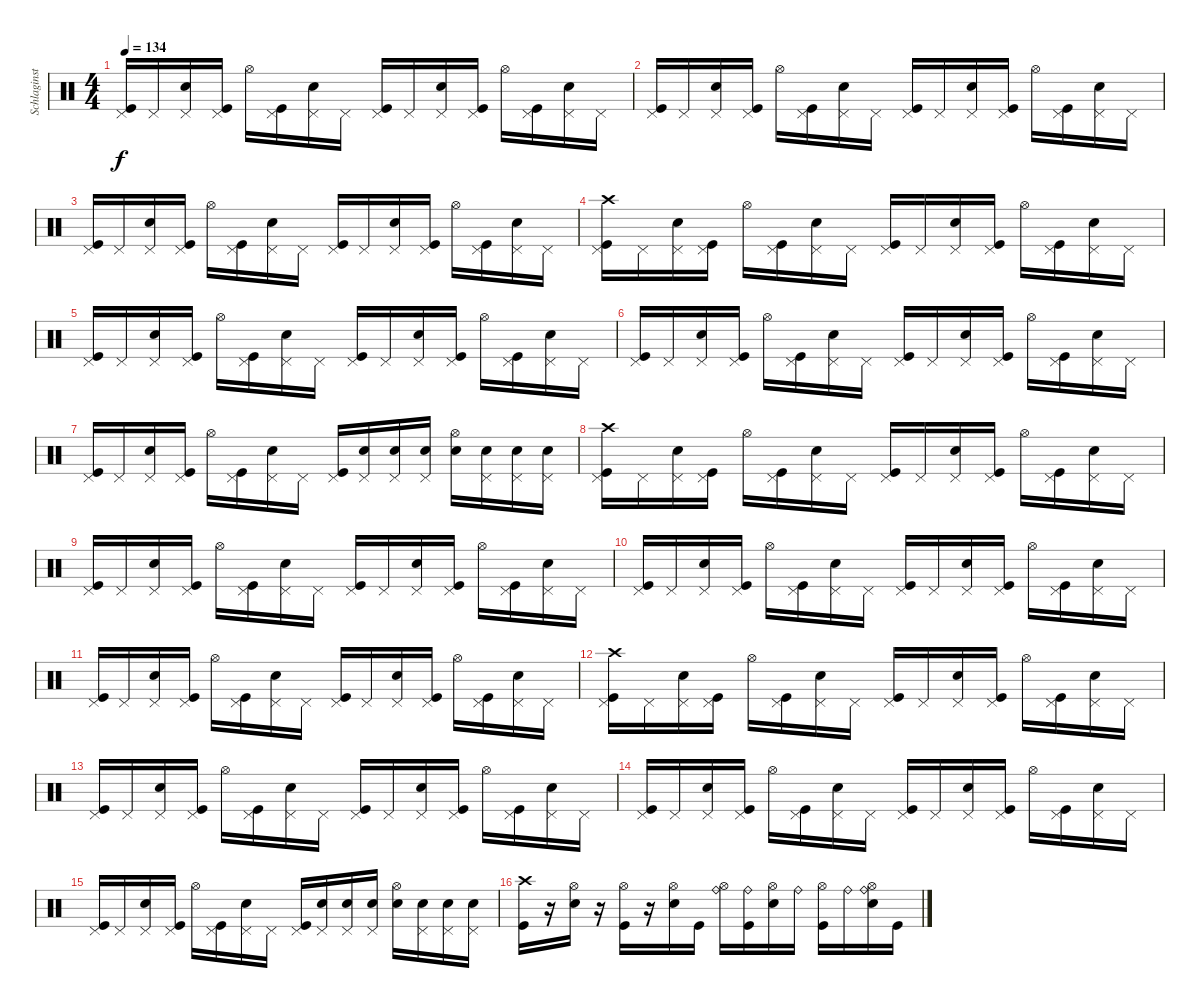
\track ("Schlaginstrumente - Auswahl" "Schlaginst") {instrument percussion}
\staff {score}
\articulation defaults
\ts (4 4)
\tempo 134
\clef neutral
\ks c
("Pedal Hi-Hat (hit)" "Kick (hit)").16{dy f} "Pedal Hi-Hat (hit)".16 ("Pedal Hi-Hat (hit)" "Snare (hit) 2").16 ("Pedal Hi-Hat (hit)" "Kick (hit)").16 "Hi-Hat (open)".16 ("Pedal Hi-Hat (hit)" "Kick (hit)").16 ("Pedal Hi-Hat (hit)" "Snare (hit) 2").16 "Pedal Hi-Hat (hit)".16 ("Pedal Hi-Hat (hit)" "Kick (hit)").16 "Pedal Hi-Hat (hit)".16 ("Pedal Hi-Hat (hit)" "Snare (hit) 2").16 ("Pedal Hi-Hat (hit)" "Kick (hit)").16 "Hi-Hat (open)".16 ("Pedal Hi-Hat (hit)" "Kick (hit)").16 ("Pedal Hi-Hat (hit)" "Snare (hit) 2").16 "Pedal Hi-Hat (hit)".16 |
("Pedal Hi-Hat (hit)" "Kick (hit)").16 "Pedal Hi-Hat (hit)".16 ("Pedal Hi-Hat (hit)" "Snare (hit) 2").16 ("Pedal Hi-Hat (hit)" "Kick (hit)").16 "Hi-Hat (open)".16 ("Pedal Hi-Hat (hit)" "Kick (hit)").16 ("Pedal Hi-Hat (hit)" "Snare (hit) 2").16 "Pedal Hi-Hat (hit)".16 ("Pedal Hi-Hat (hit)" "Kick (hit)").16 "Pedal Hi-Hat (hit)".16 ("Pedal Hi-Hat (hit)" "Snare (hit) 2").16 ("Pedal Hi-Hat (hit)" "Kick (hit)").16 "Hi-Hat (open)".16 ("Pedal Hi-Hat (hit)" "Kick (hit)").16 ("Pedal Hi-Hat (hit)" "Snare (hit) 2").16 "Pedal Hi-Hat (hit)".16 |
("Pedal Hi-Hat (hit)" "Kick (hit)").16 "Pedal Hi-Hat (hit)".16 ("Pedal Hi-Hat (hit)" "Snare (hit) 2").16 ("Pedal Hi-Hat (hit)" "Kick (hit)").16 "Hi-Hat (open)".16 ("Pedal Hi-Hat (hit)" "Kick (hit)").16 ("Pedal Hi-Hat (hit)" "Snare (hit) 2").16 "Pedal Hi-Hat (hit)".16 ("Pedal Hi-Hat (hit)" "Kick (hit)").16 "Pedal Hi-Hat (hit)".16 ("Pedal Hi-Hat (hit)" "Snare (hit) 2").16 ("Pedal Hi-Hat (hit)" "Kick (hit)").16 "Hi-Hat (open)".16 ("Pedal Hi-Hat (hit)" "Kick (hit)").16 ("Pedal Hi-Hat (hit)" "Snare (hit) 2").16 "Pedal Hi-Hat (hit)".16 |
("Pedal Hi-Hat (hit)" "Crash high (hit)" "Kick (hit)").16 "Pedal Hi-Hat (hit)".16 ("Pedal Hi-Hat (hit)" "Snare (hit) 2").16 ("Pedal Hi-Hat (hit)" "Kick (hit)").16 "Hi-Hat (open)".16 ("Pedal Hi-Hat (hit)" "Kick (hit)").16 ("Pedal Hi-Hat (hit)" "Snare (hit) 2").16 "Pedal Hi-Hat (hit)".16 ("Pedal Hi-Hat (hit)" "Kick (hit)").16 "Pedal Hi-Hat (hit)".16 ("Pedal Hi-Hat (hit)" "Snare (hit) 2").16 ("Pedal Hi-Hat (hit)" "Kick (hit)").16 "Hi-Hat (open)".16 ("Pedal Hi-Hat (hit)" "Kick (hit)").16 ("Pedal Hi-Hat (hit)" "Snare (hit) 2").16 "Pedal Hi-Hat (hit)".16 |
("Pedal Hi-Hat (hit)" "Kick (hit)").16 "Pedal Hi-Hat (hit)".16 ("Pedal Hi-Hat (hit)" "Snare (hit) 2").16 ("Pedal Hi-Hat (hit)" "Kick (hit)").16 "Hi-Hat (open)".16 ("Pedal Hi-Hat (hit)" "Kick (hit)").16 ("Pedal Hi-Hat (hit)" "Snare (hit) 2").16 "Pedal Hi-Hat (hit)".16 ("Pedal Hi-Hat (hit)" "Kick (hit)").16 "Pedal Hi-Hat (hit)".16 ("Pedal Hi-Hat (hit)" "Snare (hit) 2").16 ("Pedal Hi-Hat (hit)" "Kick (hit)").16 "Hi-Hat (open)".16 ("Pedal Hi-Hat (hit)" "Kick (hit)").16 ("Pedal Hi-Hat (hit)" "Snare (hit) 2").16 "Pedal Hi-Hat (hit)".16 |
("Pedal Hi-Hat (hit)" "Kick (hit)").16 "Pedal Hi-Hat (hit)".16 ("Pedal Hi-Hat (hit)" "Snare (hit) 2").16 ("Pedal Hi-Hat (hit)" "Kick (hit)").16 "Hi-Hat (open)".16 ("Pedal Hi-Hat (hit)" "Kick (hit)").16 ("Pedal Hi-Hat (hit)" "Snare (hit) 2").16 "Pedal Hi-Hat (hit)".16 ("Pedal Hi-Hat (hit)" "Kick (hit)").16 "Pedal Hi-Hat (hit)".16 ("Pedal Hi-Hat (hit)" "Snare (hit) 2").16 ("Pedal Hi-Hat (hit)" "Kick (hit)").16 "Hi-Hat (open)".16 ("Pedal Hi-Hat (hit)" "Kick (hit)").16 ("Pedal Hi-Hat (hit)" "Snare (hit) 2").16 "Pedal Hi-Hat (hit)".16 |
("Pedal Hi-Hat (hit)" "Kick (hit)").16 "Pedal Hi-Hat (hit)".16 ("Pedal Hi-Hat (hit)" "Snare (hit) 2").16 ("Pedal Hi-Hat (hit)" "Kick (hit)").16 "Hi-Hat (open)".16 ("Pedal Hi-Hat (hit)" "Kick (hit)").16 ("Pedal Hi-Hat (hit)" "Snare (hit) 2").16 "Pedal Hi-Hat (hit)".16 ("Pedal Hi-Hat (hit)" "Kick (hit)").16 ("Pedal Hi-Hat (hit)" "Snare (hit) 2").16 ("Pedal Hi-Hat (hit)" "Snare (hit) 2").16 ("Pedal Hi-Hat (hit)" "Snare (hit) 2").16 ("Hi-Hat (open)" "Snare (hit) 2").16 ("Pedal Hi-Hat (hit)" "Snare (hit) 2").16 ("Pedal Hi-Hat (hit)" "Snare (hit) 2").16 ("Pedal Hi-Hat (hit)" "Snare (hit) 2").16 |
("Pedal Hi-Hat (hit)" "Crash high (hit)" "Kick (hit)").16 "Pedal Hi-Hat (hit)".16 ("Pedal Hi-Hat (hit)" "Snare (hit) 2").16 ("Pedal Hi-Hat (hit)" "Kick (hit)").16 "Hi-Hat (open)".16 ("Pedal Hi-Hat (hit)" "Kick (hit)").16 ("Pedal Hi-Hat (hit)" "Snare (hit) 2").16 "Pedal Hi-Hat (hit)".16 ("Pedal Hi-Hat (hit)" "Kick (hit)").16 "Pedal Hi-Hat (hit)".16 ("Pedal Hi-Hat (hit)" "Snare (hit) 2").16 ("Pedal Hi-Hat (hit)" "Kick (hit)").16 "Hi-Hat (open)".16 ("Pedal Hi-Hat (hit)" "Kick (hit)").16 ("Pedal Hi-Hat (hit)" "Snare (hit) 2").16 "Pedal Hi-Hat (hit)".16 |
("Pedal Hi-Hat (hit)" "Kick (hit)").16 "Pedal Hi-Hat (hit)".16 ("Pedal Hi-Hat (hit)" "Snare (hit) 2").16 ("Pedal Hi-Hat (hit)" "Kick (hit)").16 "Hi-Hat (open)".16 ("Pedal Hi-Hat (hit)" "Kick (hit)").16 ("Pedal Hi-Hat (hit)" "Snare (hit) 2").16 "Pedal Hi-Hat (hit)".16 ("Pedal Hi-Hat (hit)" "Kick (hit)").16 "Pedal Hi-Hat (hit)".16 ("Pedal Hi-Hat (hit)" "Snare (hit) 2").16 ("Pedal Hi-Hat (hit)" "Kick (hit)").16 "Hi-Hat (open)".16 ("Pedal Hi-Hat (hit)" "Kick (hit)").16 ("Pedal Hi-Hat (hit)" "Snare (hit) 2").16 "Pedal Hi-Hat (hit)".16 |
("Pedal Hi-Hat (hit)" "Kick (hit)").16 "Pedal Hi-Hat (hit)".16 ("Pedal Hi-Hat (hit)" "Snare (hit) 2").16 ("Pedal Hi-Hat (hit)" "Kick (hit)").16 "Hi-Hat (open)".16 ("Pedal Hi-Hat (hit)" "Kick (hit)").16 ("Pedal Hi-Hat (hit)" "Snare (hit) 2").16 "Pedal Hi-Hat (hit)".16 ("Pedal Hi-Hat (hit)" "Kick (hit)").16 "Pedal Hi-Hat (hit)".16 ("Pedal Hi-Hat (hit)" "Snare (hit) 2").16 ("Pedal Hi-Hat (hit)" "Kick (hit)").16 "Hi-Hat (open)".16 ("Pedal Hi-Hat (hit)" "Kick (hit)").16 ("Pedal Hi-Hat (hit)" "Snare (hit) 2").16 "Pedal Hi-Hat (hit)".16 |
("Pedal Hi-Hat (hit)" "Kick (hit)").16 "Pedal Hi-Hat (hit)".16 ("Pedal Hi-Hat (hit)" "Snare (hit) 2").16 ("Pedal Hi-Hat (hit)" "Kick (hit)").16 "Hi-Hat (open)".16 ("Pedal Hi-Hat (hit)" "Kick (hit)").16 ("Pedal Hi-Hat (hit)" "Snare (hit) 2").16 "Pedal Hi-Hat (hit)".16 ("Pedal Hi-Hat (hit)" "Kick (hit)").16 "Pedal Hi-Hat (hit)".16 ("Pedal Hi-Hat (hit)" "Snare (hit) 2").16 ("Pedal Hi-Hat (hit)" "Kick (hit)").16 "Hi-Hat (open)".16 ("Pedal Hi-Hat (hit)" "Kick (hit)").16 ("Pedal Hi-Hat (hit)" "Snare (hit) 2").16 "Pedal Hi-Hat (hit)".16 |
("Pedal Hi-Hat (hit)" "Crash high (hit)" "Kick (hit)").16 "Pedal Hi-Hat (hit)".16 ("Pedal Hi-Hat (hit)" "Snare (hit) 2").16 ("Pedal Hi-Hat (hit)" "Kick (hit)").16 "Hi-Hat (open)".16 ("Pedal Hi-Hat (hit)" "Kick (hit)").16 ("Pedal Hi-Hat (hit)" "Snare (hit) 2").16 "Pedal Hi-Hat (hit)".16 ("Pedal Hi-Hat (hit)" "Kick (hit)").16 "Pedal Hi-Hat (hit)".16 ("Pedal Hi-Hat (hit)" "Snare (hit) 2").16 ("Pedal Hi-Hat (hit)" "Kick (hit)").16 "Hi-Hat (open)".16 ("Pedal Hi-Hat (hit)" "Kick (hit)").16 ("Pedal Hi-Hat (hit)" "Snare (hit) 2").16 "Pedal Hi-Hat (hit)".16 |
("Pedal Hi-Hat (hit)" "Kick (hit)").16 "Pedal Hi-Hat (hit)".16 ("Pedal Hi-Hat (hit)" "Snare (hit) 2").16 ("Pedal Hi-Hat (hit)" "Kick (hit)").16 "Hi-Hat (open)".16 ("Pedal Hi-Hat (hit)" "Kick (hit)").16 ("Pedal Hi-Hat (hit)" "Snare (hit) 2").16 "Pedal Hi-Hat (hit)".16 ("Pedal Hi-Hat (hit)" "Kick (hit)").16 "Pedal Hi-Hat (hit)".16 ("Pedal Hi-Hat (hit)" "Snare (hit) 2").16 ("Pedal Hi-Hat (hit)" "Kick (hit)").16 "Hi-Hat (open)".16 ("Pedal Hi-Hat (hit)" "Kick (hit)").16 ("Pedal Hi-Hat (hit)" "Snare (hit) 2").16 "Pedal Hi-Hat (hit)".16 |
("Pedal Hi-Hat (hit)" "Kick (hit)").16 "Pedal Hi-Hat (hit)".16 ("Pedal Hi-Hat (hit)" "Snare (hit) 2").16 ("Pedal Hi-Hat (hit)" "Kick (hit)").16 "Hi-Hat (open)".16 ("Pedal Hi-Hat (hit)" "Kick (hit)").16 ("Pedal Hi-Hat (hit)" "Snare (hit) 2").16 "Pedal Hi-Hat (hit)".16 ("Pedal Hi-Hat (hit)" "Kick (hit)").16 "Pedal Hi-Hat (hit)".16 ("Pedal Hi-Hat (hit)" "Snare (hit) 2").16 ("Pedal Hi-Hat (hit)" "Kick (hit)").16 "Hi-Hat (open)".16 ("Pedal Hi-Hat (hit)" "Kick (hit)").16 ("Pedal Hi-Hat (hit)" "Snare (hit) 2").16 "Pedal Hi-Hat (hit)".16 |
("Pedal Hi-Hat (hit)" "Kick (hit)").16 "Pedal Hi-Hat (hit)".16 ("Pedal Hi-Hat (hit)" "Snare (hit) 2").16 ("Pedal Hi-Hat (hit)" "Kick (hit)").16 "Hi-Hat (open)".16 ("Pedal Hi-Hat (hit)" "Kick (hit)").16 ("Pedal Hi-Hat (hit)" "Snare (hit) 2").16 "Pedal Hi-Hat (hit)".16 ("Pedal Hi-Hat (hit)" "Kick (hit)").16 ("Pedal Hi-Hat (hit)" "Snare (hit) 2").16 ("Pedal Hi-Hat (hit)" "Snare (hit) 2").16 ("Pedal Hi-Hat (hit)" "Snare (hit) 2").16 ("Hi-Hat (open)" "Snare (hit) 2").16 ("Pedal Hi-Hat (hit)" "Snare (hit) 2").16 ("Pedal Hi-Hat (hit)" "Snare (hit) 2").16 ("Pedal Hi-Hat (hit)" "Snare (hit) 2").16 |
("Crash high (hit)" "Kick (hit)").16 r.16 ("Hi-Hat (open)" "Snare (hit) 2").16 r.16 ("Hi-Hat (open)" "Kick (hit)").16 r.16 ("Hi-Hat (open)" "Snare (hit) 2").16 "Kick (hit)".16 ("Hi-Hat (open)" "Ride (bell)").16 ("Kick (hit)" "Ride (bell)").16 ("Hi-Hat (open)" "Snare (hit) 2").16 "Ride (bell)".16 ("Hi-Hat (open)" "Kick (hit)").16 "Ride (bell)".16 ("Hi-Hat (open)" "Snare (hit) 2" "Ride (bell)").16 "Kick (hit)".16
